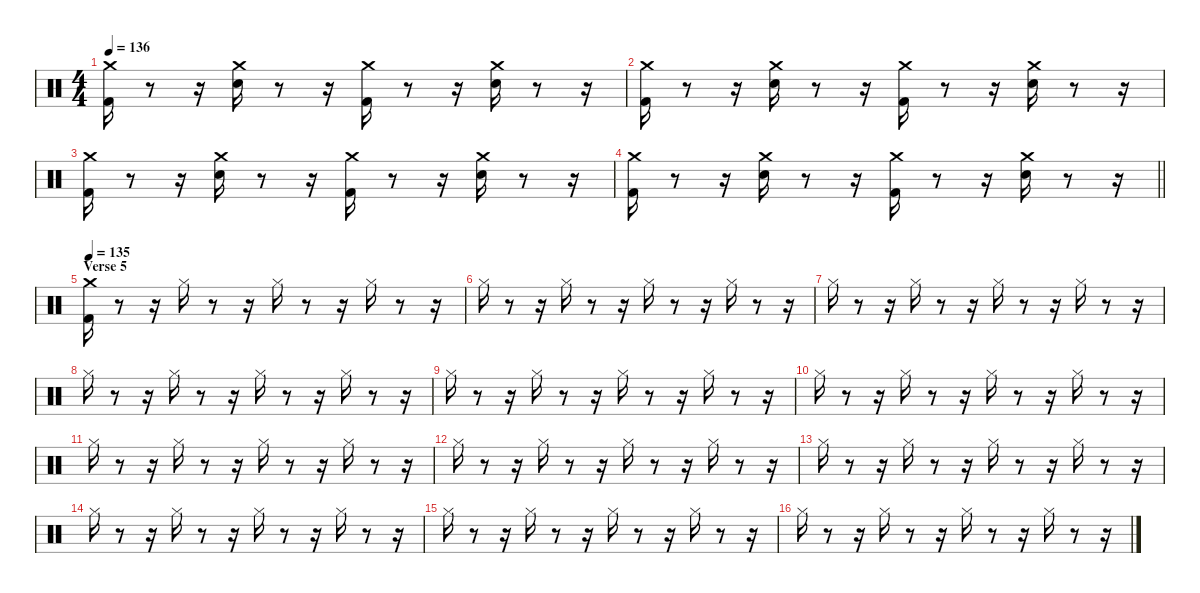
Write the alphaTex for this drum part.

\defaultSystemsLayout 4
\hideDynamics
\bracketExtendMode nobrackets
\singleTrackTrackNamePolicy hidden
\multiTrackTrackNamePolicy hidden
\firstSystemTrackNameMode fullname
\firstSystemTrackNameOrientation horizontal
\otherSystemsTrackNameOrientation horizontal
\track ("John Bonham" "drm.") {instrument percussion}
\staff {score}
\articulation defaults
\ts (4 4)
\tempo 136
\clef neutral
\ks aminor
("Kick (hit) 2" "Crash medium (hit)").16{dy f beam Down} r.8{beam Down} r.16{beam Down} ("Snare (hit) 2" "Crash medium (hit)").16{beam Down} r.8{beam Down} r.16{beam Down} ("Kick (hit) 2" "Crash medium (hit)").16{beam Down} r.8{beam Down} r.16{beam Down} ("Snare (hit) 2" "Crash medium (hit)").16{beam Down} r.8{beam Down} r.16{beam Down} |
("Kick (hit) 2" "Crash medium (hit)").16{beam Down} r.8{beam Down} r.16{beam Down} ("Snare (hit) 2" "Crash medium (hit)").16{beam Down} r.8{beam Down} r.16{beam Down} ("Kick (hit) 2" "Crash medium (hit)").16{beam Down} r.8{beam Down} r.16{beam Down} ("Snare (hit) 2" "Crash medium (hit)").16{beam Down} r.8{beam Down} r.16{beam Down} |
("Kick (hit) 2" "Crash medium (hit)").16{beam Down} r.8{beam Down} r.16{beam Down} ("Snare (hit) 2" "Crash medium (hit)").16{beam Down} r.8{beam Down} r.16{beam Down} ("Kick (hit) 2" "Crash medium (hit)").16{beam Down} r.8{beam Down} r.16{beam Down} ("Snare (hit) 2" "Crash medium (hit)").16{beam Down} r.8{beam Down} r.16{beam Down} |
\barLineRight lightlight
("Kick (hit) 2" "Crash medium (hit)").16{beam Down} r.8{beam Down} r.16{beam Down} ("Snare (hit) 2" "Crash medium (hit)").16{beam Down} r.8{beam Down} r.16{beam Down} ("Kick (hit) 2" "Crash medium (hit)").16{beam Down} r.8{beam Down} r.16{beam Down} ("Snare (hit) 2" "Crash medium (hit)").16{beam Down} r.8{beam Down} r.16{beam Down} |
\section ("" "Verse 5")
\tempo 135
("Kick (hit) 2" "Crash medium (hit)").16{beam Down} r.8{beam Down} r.16{beam Down} "Hi-Hat (closed)".16{beam Down} r.8{beam Down} r.16{beam Down} "Hi-Hat (closed)".16{beam Down} r.8{beam Down} r.16{beam Down} "Hi-Hat (closed)".16{beam Down} r.8{beam Down} r.16{beam Down} |
"Hi-Hat (closed)".16{beam Down} r.8{beam Down} r.16{beam Down} "Hi-Hat (closed)".16{beam Down} r.8{beam Down} r.16{beam Down} "Hi-Hat (closed)".16{beam Down} r.8{beam Down} r.16{beam Down} "Hi-Hat (closed)".16{beam Down} r.8{beam Down} r.16{beam Down} |
"Hi-Hat (closed)".16{beam Down} r.8{beam Down} r.16{beam Down} "Hi-Hat (closed)".16{beam Down} r.8{beam Down} r.16{beam Down} "Hi-Hat (closed)".16{beam Down} r.8{beam Down} r.16{beam Down} "Hi-Hat (closed)".16{beam Down} r.8{beam Down} r.16{beam Down} |
"Hi-Hat (closed)".16{beam Down} r.8{beam Down} r.16{beam Down} "Hi-Hat (closed)".16{beam Down} r.8{beam Down} r.16{beam Down} "Hi-Hat (closed)".16{beam Down} r.8{beam Down} r.16{beam Down} "Hi-Hat (closed)".16{beam Down} r.8{beam Down} r.16{beam Down} |
"Hi-Hat (closed)".16{beam Down} r.8{beam Down} r.16{beam Down} "Hi-Hat (closed)".16{beam Down} r.8{beam Down} r.16{beam Down} "Hi-Hat (closed)".16{beam Down} r.8{beam Down} r.16{beam Down} "Hi-Hat (closed)".16{beam Down} r.8{beam Down} r.16{beam Down} |
"Hi-Hat (closed)".16{beam Down} r.8{beam Down} r.16{beam Down} "Hi-Hat (closed)".16{beam Down} r.8{beam Down} r.16{beam Down} "Hi-Hat (closed)".16{beam Down} r.8{beam Down} r.16{beam Down} "Hi-Hat (closed)".16{beam Down} r.8{beam Down} r.16{beam Down} |
"Hi-Hat (closed)".16{beam Down} r.8{beam Down} r.16{beam Down} "Hi-Hat (closed)".16{beam Down} r.8{beam Down} r.16{beam Down} "Hi-Hat (closed)".16{beam Down} r.8{beam Down} r.16{beam Down} "Hi-Hat (closed)".16{beam Down} r.8{beam Down} r.16{beam Down} |
"Hi-Hat (closed)".16{beam Down} r.8{beam Down} r.16{beam Down} "Hi-Hat (closed)".16{beam Down} r.8{beam Down} r.16{beam Down} "Hi-Hat (closed)".16{beam Down} r.8{beam Down} r.16{beam Down} "Hi-Hat (closed)".16{beam Down} r.8{beam Down} r.16{beam Down} |
"Hi-Hat (closed)".16{beam Down} r.8{beam Down} r.16{beam Down} "Hi-Hat (closed)".16{beam Down} r.8{beam Down} r.16{beam Down} "Hi-Hat (closed)".16{beam Down} r.8{beam Down} r.16{beam Down} "Hi-Hat (closed)".16{beam Down} r.8{beam Down} r.16{beam Down} |
\ks c "Hi-Hat (closed)".16{beam Down}
r.8{beam Down} r.16{beam Down} "Hi-Hat (closed)".16{beam Down} r.8{beam Down} r.16{beam Down} "Hi-Hat (closed)".16{beam Down} r.8{beam Down} r.16{beam Down} "Hi-Hat (closed)".16{beam Down} r.8{beam Down} r.16{beam Down} |
"Hi-Hat (closed)".16{beam Down} r.8{beam Down} r.16{beam Down} "Hi-Hat (closed)".16{beam Down} r.8{beam Down} r.16{beam Down} "Hi-Hat (closed)".16{beam Down} r.8{beam Down} r.16{beam Down} "Hi-Hat (closed)".16{beam Down} r.8{beam Down} r.16{beam Down} |
\ks aminor "Hi-Hat (closed)".16{beam Down}
r.8{beam Down} r.16{beam Down} "Hi-Hat (closed)".16{beam Down} r.8{beam Down} r.16{beam Down} "Hi-Hat (closed)".16{beam Down} r.8{beam Down} r.16{beam Down} "Hi-Hat (closed)".16{beam Down} r.8{beam Down} r.16{beam Down}
